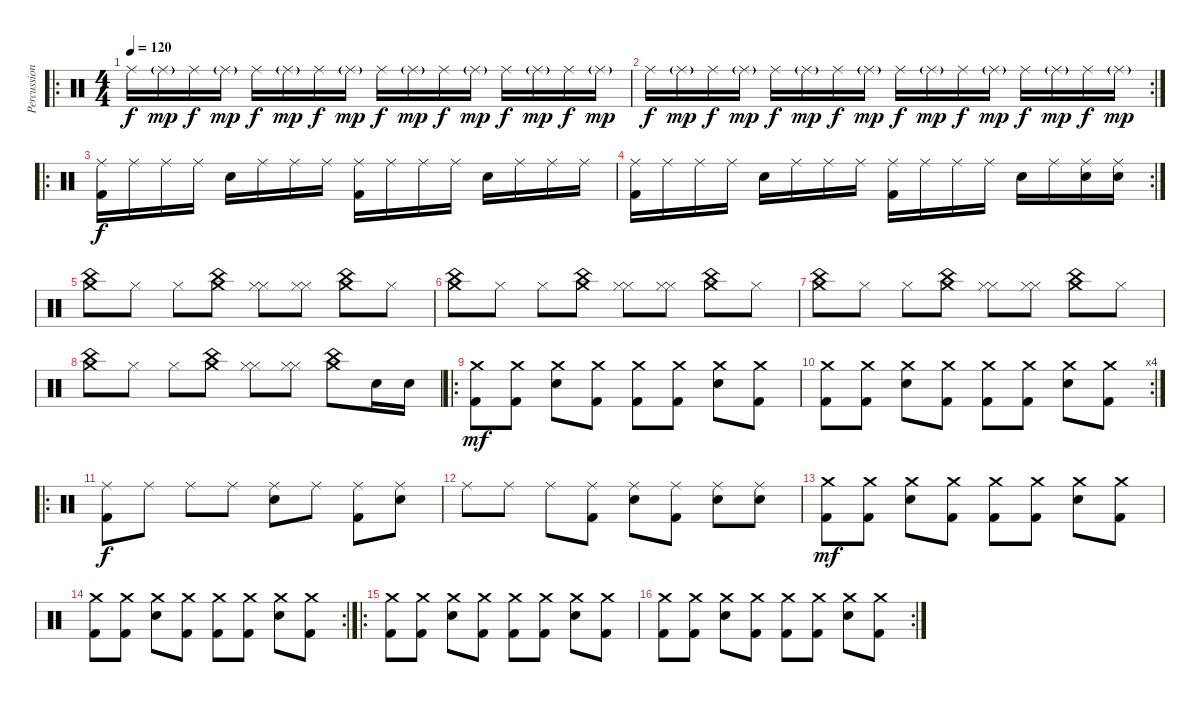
\track ("Percussions" "Percussion") {instrument percussion}
\staff {score}
\articulation defaults
\ro
\ts (4 4)
\tempo 120
\clef neutral
\ks c "Ride (middle)".16{dy f} "Ride (middle)"{g}.16{dy mp} "Ride (middle)".16{dy f} "Ride (middle)"{g}.16{dy mp} "Ride (middle)".16{dy f} "Ride (middle)"{g}.16{dy mp} "Ride (middle)".16{dy f} "Ride (middle)"{g}.16{dy mp} "Ride (middle)".16{dy f} "Ride (middle)"{g}.16{dy mp} "Ride (middle)".16{dy f} "Ride (middle)"{g}.16{dy mp} "Ride (middle)".16{dy f} "Ride (middle)"{g}.16{dy mp} "Ride (middle)".16{dy f} "Ride (middle)"{g}.16{dy mp}
|
\rc 2 "Ride (middle)".16{dy f} "Ride (middle)"{g}.16{dy mp} "Ride (middle)".16{dy f} "Ride (middle)"{g}.16{dy mp} "Ride (middle)".16{dy f} "Ride (middle)"{g}.16{dy mp} "Ride (middle)".16{dy f} "Ride (middle)"{g}.16{dy mp} "Ride (middle)".16{dy f} "Ride (middle)"{g}.16{dy mp} "Ride (middle)".16{dy f} "Ride (middle)"{g}.16{dy mp} "Ride (middle)".16{dy f} "Ride (middle)"{g}.16{dy mp} "Ride (middle)".16{dy f} "Ride (middle)"{g}.16{dy mp}
|
\ro
("Ride (middle)" "Kick (hit) 2").16{dy f} "Ride (middle)".16 "Ride (middle)".16 "Ride (middle)".16 "Electric Snare (hit)".16 "Ride (middle)".16 "Ride (middle)".16 "Ride (middle)".16 ("Ride (middle)" "Kick (hit) 2").16 "Ride (middle)".16 "Ride (middle)".16 "Ride (middle)".16 "Electric Snare (hit)".16 "Ride (middle)".16 "Ride (middle)".16 "Ride (middle)".16 |
\rc 2
("Ride (middle)" "Kick (hit) 2").16 "Ride (middle)".16 "Ride (middle)".16 "Ride (middle)".16 "Electric Snare (hit)".16 "Ride (middle)".16 "Ride (middle)".16 "Ride (middle)".16 ("Ride (middle)" "Kick (hit) 2").16 "Ride (middle)".16 "Ride (middle)".16 "Ride (middle)".16 "Electric Snare (hit)".16 "Ride (middle)".16 ("Ride (middle)" "Electric Snare (hit)").16 ("Ride (middle)" "Electric Snare (hit)").16 |
("Crash medium (hit)" "China (hit)").8 "Hi-Hat (closed)".8 "Hi-Hat (closed)".8 ("Crash medium (hit)" "China (hit)").8 ("Hi-Hat (closed)" "Hi-Hat (closed)").8 ("Hi-Hat (closed)" "Hi-Hat (closed)").8 ("Crash medium (hit)" "China (hit)").8 "Hi-Hat (closed)".8 |
("Crash medium (hit)" "China (hit)").8 "Hi-Hat (closed)".8 "Hi-Hat (closed)".8 ("Crash medium (hit)" "China (hit)").8 ("Hi-Hat (closed)" "Hi-Hat (closed)").8 ("Hi-Hat (closed)" "Hi-Hat (closed)").8 ("Crash medium (hit)" "China (hit)").8 "Hi-Hat (closed)".8 |
("Crash medium (hit)" "China (hit)").8 "Hi-Hat (closed)".8 "Hi-Hat (closed)".8 ("Crash medium (hit)" "China (hit)").8 ("Hi-Hat (closed)" "Hi-Hat (closed)").8 ("Hi-Hat (closed)" "Hi-Hat (closed)").8 ("Crash medium (hit)" "China (hit)").8 "Hi-Hat (closed)".8 |
("Crash medium (hit)" "China (hit)").8 "Hi-Hat (closed)".8 "Hi-Hat (closed)".8 ("Crash medium (hit)" "China (hit)").8 ("Hi-Hat (closed)" "Hi-Hat (closed)").8 ("Hi-Hat (closed)" "Hi-Hat (closed)").8 ("Crash medium (hit)" "China (hit)").8 "Electric Snare (hit)".16 "Electric Snare (hit)".16 |
\ro
("Crash medium (hit)" "Kick (hit) 2").8{dy mf} ("Crash medium (hit)" "Kick (hit) 2").8 ("Crash medium (hit)" "Electric Snare (hit)").8 ("Crash medium (hit)" "Kick (hit) 2").8 ("Crash medium (hit)" "Kick (hit) 2").8 ("Crash medium (hit)" "Kick (hit) 2").8 ("Crash medium (hit)" "Electric Snare (hit)").8 ("Crash medium (hit)" "Kick (hit) 2").8 |
\rc 4
("Crash medium (hit)" "Kick (hit) 2").8 ("Crash medium (hit)" "Kick (hit) 2").8 ("Crash medium (hit)" "Electric Snare (hit)").8 ("Crash medium (hit)" "Kick (hit) 2").8 ("Crash medium (hit)" "Kick (hit) 2").8 ("Crash medium (hit)" "Kick (hit) 2").8 ("Crash medium (hit)" "Electric Snare (hit)").8 ("Crash medium (hit)" "Kick (hit) 2").8 |
\ro
("Ride (middle)" "Kick (hit) 2").8{dy f} "Ride (middle)".8 "Ride (middle)".8 "Ride (middle)".8 ("Ride (middle)" "Electric Snare (hit)").8 "Ride (middle)".8 ("Ride (middle)" "Kick (hit) 2").8 ("Ride (middle)" "Electric Snare (hit)").8 |
"Ride (middle)".8 "Ride (middle)".8 "Ride (middle)".8 ("Ride (middle)" "Kick (hit) 2").8 ("Ride (middle)" "Electric Snare (hit)").8 ("Ride (middle)" "Kick (hit) 2").8 ("Ride (middle)" "Electric Snare (hit)").8 ("Ride (middle)" "Electric Snare (hit)").8 |
("Crash medium (hit)" "Kick (hit) 2").8{dy mf} ("Crash medium (hit)" "Kick (hit) 2").8 ("Crash medium (hit)" "Electric Snare (hit)").8 ("Crash medium (hit)" "Kick (hit) 2").8 ("Crash medium (hit)" "Kick (hit) 2").8 ("Crash medium (hit)" "Kick (hit) 2").8 ("Crash medium (hit)" "Electric Snare (hit)").8 ("Crash medium (hit)" "Kick (hit) 2").8 |
\rc 2
("Crash medium (hit)" "Kick (hit) 2").8 ("Crash medium (hit)" "Kick (hit) 2").8 ("Crash medium (hit)" "Electric Snare (hit)").8 ("Crash medium (hit)" "Kick (hit) 2").8 ("Crash medium (hit)" "Kick (hit) 2").8 ("Crash medium (hit)" "Kick (hit) 2").8 ("Crash medium (hit)" "Electric Snare (hit)").8 ("Crash medium (hit)" "Kick (hit) 2").8 |
\ro
("Crash medium (hit)" "Kick (hit) 2").8 ("Crash medium (hit)" "Kick (hit) 2").8 ("Crash medium (hit)" "Electric Snare (hit)").8 ("Crash medium (hit)" "Kick (hit) 2").8 ("Crash medium (hit)" "Kick (hit) 2").8 ("Crash medium (hit)" "Kick (hit) 2").8 ("Crash medium (hit)" "Electric Snare (hit)").8 ("Crash medium (hit)" "Kick (hit) 2").8 |
\rc 2
("Crash medium (hit)" "Kick (hit) 2").8 ("Crash medium (hit)" "Kick (hit) 2").8 ("Crash medium (hit)" "Electric Snare (hit)").8 ("Crash medium (hit)" "Kick (hit) 2").8 ("Crash medium (hit)" "Kick (hit) 2").8 ("Crash medium (hit)" "Kick (hit) 2").8 ("Crash medium (hit)" "Electric Snare (hit)").8 ("Crash medium (hit)" "Kick (hit) 2").8
